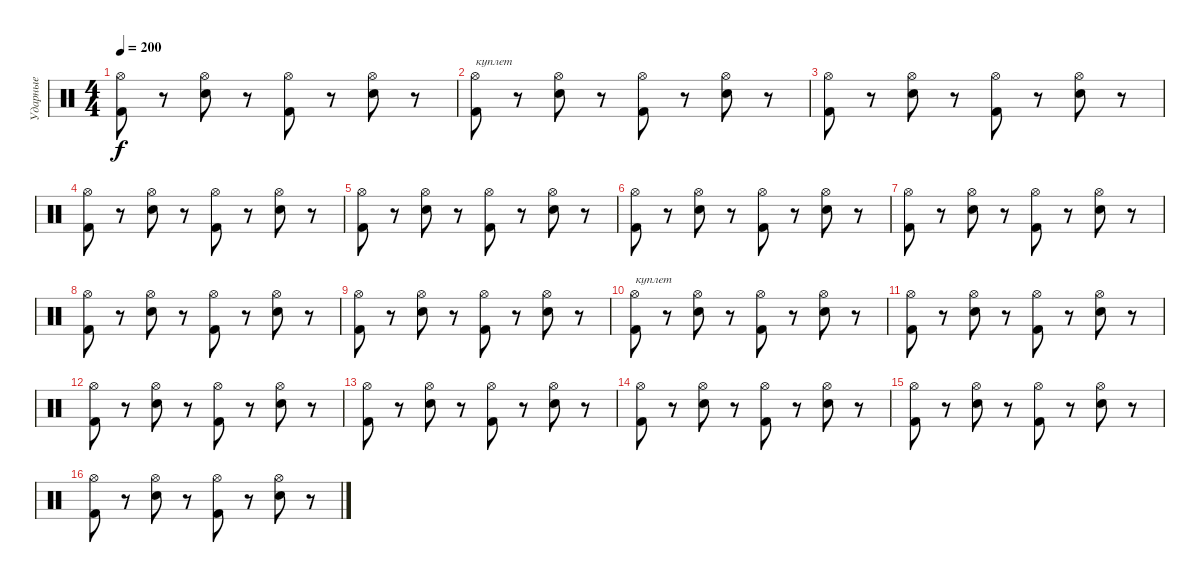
\track ("Ударные" "Ударные") {instrument percussion}
\staff {score}
\articulation defaults
\ts (4 4)
\tempo 200
\clef neutral
\ks c
("Hi-Hat (open)" "Kick (hit) 2").8{dy f} r.8 ("Hi-Hat (open)" "Snare (hit) 2").8 r.8 ("Hi-Hat (open)" "Kick (hit) 2").8 r.8 ("Hi-Hat (open)" "Snare (hit) 2").8 r.8 |
("Hi-Hat (open)" "Kick (hit) 2").8{txt "куплет"} r.8 ("Hi-Hat (open)" "Snare (hit) 2").8 r.8 ("Hi-Hat (open)" "Kick (hit) 2").8 r.8 ("Hi-Hat (open)" "Snare (hit) 2").8 r.8 |
("Hi-Hat (open)" "Kick (hit) 2").8 r.8 ("Hi-Hat (open)" "Snare (hit) 2").8 r.8 ("Hi-Hat (open)" "Kick (hit) 2").8 r.8 ("Hi-Hat (open)" "Snare (hit) 2").8 r.8 |
("Hi-Hat (open)" "Kick (hit) 2").8 r.8 ("Hi-Hat (open)" "Snare (hit) 2").8 r.8 ("Hi-Hat (open)" "Kick (hit) 2").8 r.8 ("Hi-Hat (open)" "Snare (hit) 2").8 r.8 |
("Hi-Hat (open)" "Kick (hit) 2").8 r.8 ("Hi-Hat (open)" "Snare (hit) 2").8 r.8 ("Hi-Hat (open)" "Kick (hit) 2").8 r.8 ("Hi-Hat (open)" "Snare (hit) 2").8 r.8 |
("Hi-Hat (open)" "Kick (hit) 2").8 r.8 ("Hi-Hat (open)" "Snare (hit) 2").8 r.8 ("Hi-Hat (open)" "Kick (hit) 2").8 r.8 ("Hi-Hat (open)" "Snare (hit) 2").8 r.8 |
("Hi-Hat (open)" "Kick (hit) 2").8 r.8 ("Hi-Hat (open)" "Snare (hit) 2").8 r.8 ("Hi-Hat (open)" "Kick (hit) 2").8 r.8 ("Hi-Hat (open)" "Snare (hit) 2").8 r.8 |
("Hi-Hat (open)" "Kick (hit) 2").8 r.8 ("Hi-Hat (open)" "Snare (hit) 2").8 r.8 ("Hi-Hat (open)" "Kick (hit) 2").8 r.8 ("Hi-Hat (open)" "Snare (hit) 2").8 r.8 |
("Hi-Hat (open)" "Kick (hit) 2").8 r.8 ("Hi-Hat (open)" "Snare (hit) 2").8 r.8 ("Hi-Hat (open)" "Kick (hit) 2").8 r.8 ("Hi-Hat (open)" "Snare (hit) 2").8 r.8 |
("Hi-Hat (open)" "Kick (hit) 2").8{txt "куплет"} r.8 ("Hi-Hat (open)" "Snare (hit) 2").8 r.8 ("Hi-Hat (open)" "Kick (hit) 2").8 r.8 ("Hi-Hat (open)" "Snare (hit) 2").8 r.8 |
("Hi-Hat (open)" "Kick (hit) 2").8 r.8 ("Hi-Hat (open)" "Snare (hit) 2").8 r.8 ("Hi-Hat (open)" "Kick (hit) 2").8 r.8 ("Hi-Hat (open)" "Snare (hit) 2").8 r.8 |
("Hi-Hat (open)" "Kick (hit) 2").8 r.8 ("Hi-Hat (open)" "Snare (hit) 2").8 r.8 ("Hi-Hat (open)" "Kick (hit) 2").8 r.8 ("Hi-Hat (open)" "Snare (hit) 2").8 r.8 |
("Hi-Hat (open)" "Kick (hit) 2").8 r.8 ("Hi-Hat (open)" "Snare (hit) 2").8 r.8 ("Hi-Hat (open)" "Kick (hit) 2").8 r.8 ("Hi-Hat (open)" "Snare (hit) 2").8 r.8 |
("Hi-Hat (open)" "Kick (hit) 2").8 r.8 ("Hi-Hat (open)" "Snare (hit) 2").8 r.8 ("Hi-Hat (open)" "Kick (hit) 2").8 r.8 ("Hi-Hat (open)" "Snare (hit) 2").8 r.8 |
("Hi-Hat (open)" "Kick (hit) 2").8 r.8 ("Hi-Hat (open)" "Snare (hit) 2").8 r.8 ("Hi-Hat (open)" "Kick (hit) 2").8 r.8 ("Hi-Hat (open)" "Snare (hit) 2").8 r.8 |
("Hi-Hat (open)" "Kick (hit) 2").8 r.8 ("Hi-Hat (open)" "Snare (hit) 2").8 r.8 ("Hi-Hat (open)" "Kick (hit) 2").8 r.8 ("Hi-Hat (open)" "Snare (hit) 2").8 r.8
